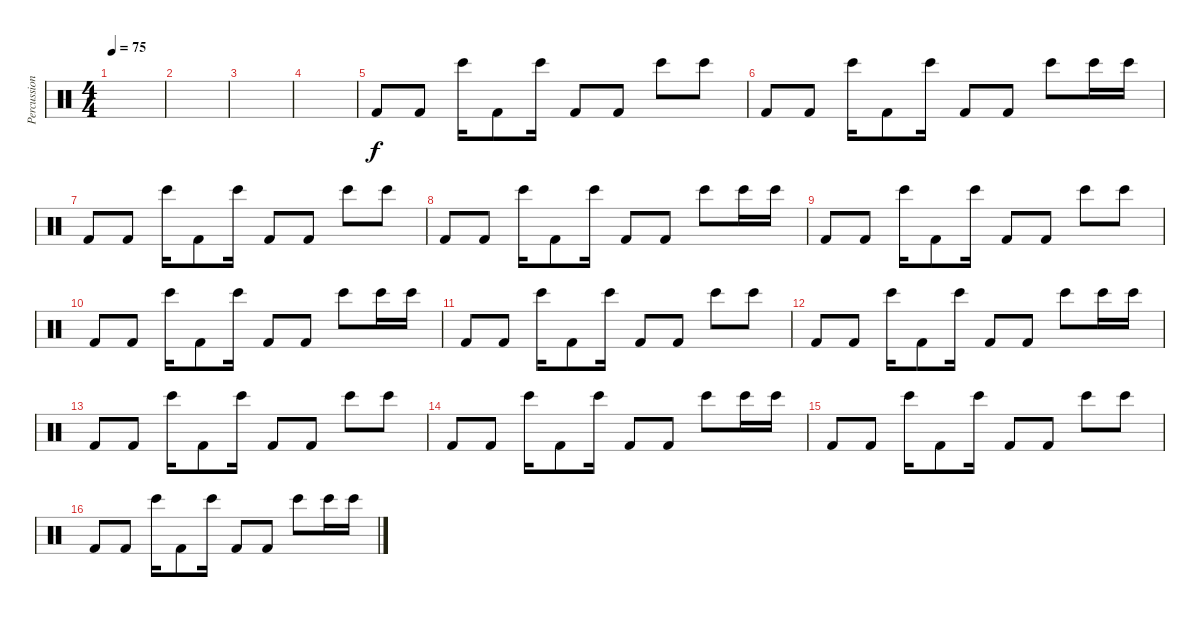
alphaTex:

\track ("Percussion" "Percussion") {instrument percussion}
\staff {score}
\articulation defaults
\ts (4 4)
\tempo 75
\clef neutral
\ks c
|
|
|
|
"Kick (hit) 2".8 "Kick (hit) 2".8 "Bongo High (hit)".16 "Kick (hit) 2".8 "Bongo High (hit)".16 "Kick (hit) 2".8 "Kick (hit) 2".8 "Bongo High (hit)".8 "Bongo High (hit)".8 |
"Kick (hit) 2".8 "Kick (hit) 2".8 "Bongo High (hit)".16 "Kick (hit) 2".8 "Bongo High (hit)".16 "Kick (hit) 2".8 "Kick (hit) 2".8 "Bongo High (hit)".8 "Bongo High (hit)".16 "Bongo High (hit)".16 |
"Kick (hit) 2".8 "Kick (hit) 2".8 "Bongo High (hit)".16 "Kick (hit) 2".8 "Bongo High (hit)".16 "Kick (hit) 2".8 "Kick (hit) 2".8 "Bongo High (hit)".8 "Bongo High (hit)".8 |
"Kick (hit) 2".8 "Kick (hit) 2".8 "Bongo High (hit)".16 "Kick (hit) 2".8 "Bongo High (hit)".16 "Kick (hit) 2".8 "Kick (hit) 2".8 "Bongo High (hit)".8 "Bongo High (hit)".16 "Bongo High (hit)".16 |
"Kick (hit) 2".8 "Kick (hit) 2".8 "Bongo High (hit)".16 "Kick (hit) 2".8 "Bongo High (hit)".16 "Kick (hit) 2".8 "Kick (hit) 2".8 "Bongo High (hit)".8 "Bongo High (hit)".8 |
"Kick (hit) 2".8 "Kick (hit) 2".8 "Bongo High (hit)".16 "Kick (hit) 2".8 "Bongo High (hit)".16 "Kick (hit) 2".8 "Kick (hit) 2".8 "Bongo High (hit)".8 "Bongo High (hit)".16 "Bongo High (hit)".16 |
"Kick (hit) 2".8 "Kick (hit) 2".8 "Bongo High (hit)".16 "Kick (hit) 2".8 "Bongo High (hit)".16 "Kick (hit) 2".8 "Kick (hit) 2".8 "Bongo High (hit)".8 "Bongo High (hit)".8 |
"Kick (hit) 2".8 "Kick (hit) 2".8 "Bongo High (hit)".16 "Kick (hit) 2".8 "Bongo High (hit)".16 "Kick (hit) 2".8 "Kick (hit) 2".8 "Bongo High (hit)".8 "Bongo High (hit)".16 "Bongo High (hit)".16 |
"Kick (hit) 2".8 "Kick (hit) 2".8 "Bongo High (hit)".16 "Kick (hit) 2".8 "Bongo High (hit)".16 "Kick (hit) 2".8 "Kick (hit) 2".8 "Bongo High (hit)".8 "Bongo High (hit)".8 |
"Kick (hit) 2".8 "Kick (hit) 2".8 "Bongo High (hit)".16 "Kick (hit) 2".8 "Bongo High (hit)".16 "Kick (hit) 2".8 "Kick (hit) 2".8 "Bongo High (hit)".8 "Bongo High (hit)".16 "Bongo High (hit)".16 |
"Kick (hit) 2".8 "Kick (hit) 2".8 "Bongo High (hit)".16 "Kick (hit) 2".8 "Bongo High (hit)".16 "Kick (hit) 2".8 "Kick (hit) 2".8 "Bongo High (hit)".8 "Bongo High (hit)".8 |
"Kick (hit) 2".8 "Kick (hit) 2".8 "Bongo High (hit)".16 "Kick (hit) 2".8 "Bongo High (hit)".16 "Kick (hit) 2".8 "Kick (hit) 2".8 "Bongo High (hit)".8 "Bongo High (hit)".16 "Bongo High (hit)".16
